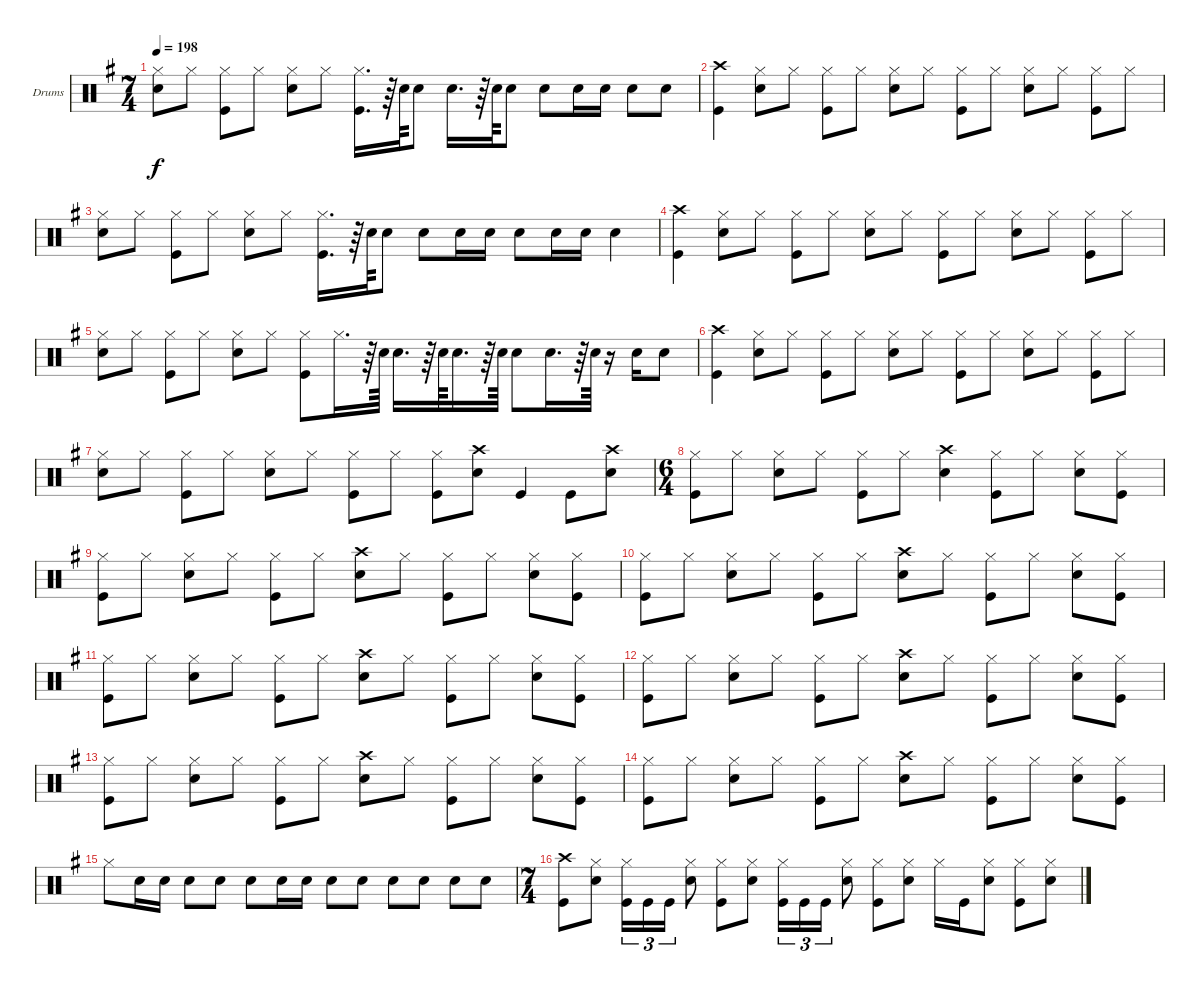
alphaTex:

\defaultSystemsLayout 4
\bracketExtendMode groupsimilarinstruments
\firstSystemTrackNameOrientation horizontal
\otherSystemsTrackNameOrientation horizontal
\track ("Drumkit" "Drums") {instrument percussion}
\staff {score}
\articulation defaults
\ts (7 4)
\tempo 198
\clef neutral
\ks g
("Hi-Hat (closed)" "Snare (hit) 2").8{dy f} "Hi-Hat (closed)".8 ("Hi-Hat (closed)" "Kick (hit)").8 "Hi-Hat (closed)".8 ("Hi-Hat (closed)" "Snare (hit) 2").8 "Hi-Hat (closed)".8 ("Hi-Hat (closed)" "Kick (hit)").16{d} r.64 "Snare (hit) 2".64 "Snare (hit) 2".8 "Snare (hit) 2".16{d} r.64 "Snare (hit) 2".64 "Snare (hit) 2".8 "Snare (hit) 2".8 "Snare (hit) 2".16 "Snare (hit) 2".16 "Snare (hit) 2".8 "Snare (hit) 2".8 |
("Kick (hit)" "Crash high (hit)").4 ("Hi-Hat (closed)" "Snare (hit) 2").8 "Hi-Hat (closed)".8 ("Hi-Hat (closed)" "Kick (hit)").8 "Hi-Hat (closed)".8 ("Snare (hit) 2" "Hi-Hat (closed)").8 "Hi-Hat (closed)".8 ("Hi-Hat (closed)" "Kick (hit)").8 "Hi-Hat (closed)".8 ("Snare (hit) 2" "Hi-Hat (closed)").8 "Hi-Hat (closed)".8 ("Hi-Hat (closed)" "Kick (hit)").8 "Hi-Hat (closed)".8 |
("Hi-Hat (closed)" "Snare (hit) 2").8 "Hi-Hat (closed)".8 ("Hi-Hat (closed)" "Kick (hit)").8 "Hi-Hat (closed)".8 ("Hi-Hat (closed)" "Snare (hit) 2").8 "Hi-Hat (closed)".8 ("Hi-Hat (closed)" "Kick (hit)").16{d} r.64 "Snare (hit) 2".64 "Snare (hit) 2".8 "Snare (hit) 2".8 "Snare (hit) 2".16 "Snare (hit) 2".16 "Snare (hit) 2".8 "Snare (hit) 2".16 "Snare (hit) 2".16 "Snare (hit) 2".4 |
("Kick (hit)" "Crash high (hit)").4 ("Hi-Hat (closed)" "Snare (hit) 2").8 "Hi-Hat (closed)".8 ("Hi-Hat (closed)" "Kick (hit)").8 "Hi-Hat (closed)".8 ("Snare (hit) 2" "Hi-Hat (closed)").8 "Hi-Hat (closed)".8 ("Hi-Hat (closed)" "Kick (hit)").8 "Hi-Hat (closed)".8 ("Snare (hit) 2" "Hi-Hat (closed)").8 "Hi-Hat (closed)".8 ("Hi-Hat (closed)" "Kick (hit)").8 "Hi-Hat (closed)".8 |
("Hi-Hat (closed)" "Snare (hit) 2").8 "Hi-Hat (closed)".8 ("Hi-Hat (closed)" "Kick (hit)").8 "Hi-Hat (closed)".8 ("Hi-Hat (closed)" "Snare (hit) 2").8 "Hi-Hat (closed)".8 ("Hi-Hat (closed)" "Kick (hit)").8 "Hi-Hat (closed)".16{d} r.64 "Snare (hit) 2".64 "Snare (hit) 2".16{d} r.64 "Snare (hit) 2".64 "Snare (hit) 2".16{d} r.64 "Snare (hit) 2".64 "Snare (hit) 2".8 "Snare (hit) 2".16{d} r.64 "Snare (hit) 2".64 r.16 "Snare (hit) 2".16 "Snare (hit) 2".8 |
("Kick (hit)" "Crash high (hit)").4 ("Hi-Hat (closed)" "Snare (hit) 2").8 "Hi-Hat (closed)".8 ("Kick (hit)" "Hi-Hat (closed)").8 "Hi-Hat (closed)".8 ("Snare (hit) 2" "Hi-Hat (closed)").8 "Hi-Hat (closed)".8 ("Kick (hit)" "Hi-Hat (closed)").8 "Hi-Hat (closed)".8 ("Snare (hit) 2" "Hi-Hat (closed)").8 "Hi-Hat (closed)".8 ("Kick (hit)" "Hi-Hat (closed)").8 "Hi-Hat (closed)".8 |
("Hi-Hat (closed)" "Snare (hit) 2").8 "Hi-Hat (closed)".8 ("Hi-Hat (closed)" "Kick (hit)").8 "Hi-Hat (closed)".8 ("Snare (hit) 2" "Hi-Hat (closed)").8 "Hi-Hat (closed)".8 ("Hi-Hat (closed)" "Kick (hit)").8 "Hi-Hat (closed)".8 ("Hi-Hat (closed)" "Kick (hit)").8 ("Crash high (hit)" "Snare (hit) 2").8 "Kick (hit)".4 "Kick (hit)".8 ("Snare (hit) 2" "Crash high (hit)").8 |
\ts (6 4)
("Hi-Hat (closed)" "Kick (hit)").8 "Hi-Hat (closed)".8 ("Snare (hit) 2" "Hi-Hat (closed)").8 "Hi-Hat (closed)".8 ("Hi-Hat (closed)" "Kick (hit)").8 "Hi-Hat (closed)".8 ("Snare (hit) 2" "Crash high (hit)").4 ("Hi-Hat (closed)" "Kick (hit)").8 "Hi-Hat (closed)".8 ("Snare (hit) 2" "Hi-Hat (closed)").8 ("Kick (hit)" "Hi-Hat (closed)").8 |
("Hi-Hat (closed)" "Kick (hit)").8 "Hi-Hat (closed)".8 ("Snare (hit) 2" "Hi-Hat (closed)").8 "Hi-Hat (closed)".8 ("Hi-Hat (closed)" "Kick (hit)").8 "Hi-Hat (closed)".8 ("Crash high (hit)" "Snare (hit) 2").8 "Hi-Hat (closed)".8 ("Hi-Hat (closed)" "Kick (hit)").8 "Hi-Hat (closed)".8 ("Snare (hit) 2" "Hi-Hat (closed)").8 ("Kick (hit)" "Hi-Hat (closed)").8 |
("Hi-Hat (closed)" "Kick (hit)").8 "Hi-Hat (closed)".8 ("Snare (hit) 2" "Hi-Hat (closed)").8 "Hi-Hat (closed)".8 ("Hi-Hat (closed)" "Kick (hit)").8 "Hi-Hat (closed)".8 ("Crash high (hit)" "Snare (hit) 2").8 "Hi-Hat (closed)".8 ("Hi-Hat (closed)" "Kick (hit)").8 "Hi-Hat (closed)".8 ("Snare (hit) 2" "Hi-Hat (closed)").8 ("Kick (hit)" "Hi-Hat (closed)").8 |
("Hi-Hat (closed)" "Kick (hit)").8 "Hi-Hat (closed)".8 ("Snare (hit) 2" "Hi-Hat (closed)").8 "Hi-Hat (closed)".8 ("Hi-Hat (closed)" "Kick (hit)").8 "Hi-Hat (closed)".8 ("Crash high (hit)" "Snare (hit) 2").8 "Hi-Hat (closed)".8 ("Hi-Hat (closed)" "Kick (hit)").8 "Hi-Hat (closed)".8 ("Snare (hit) 2" "Hi-Hat (closed)").8 ("Kick (hit)" "Hi-Hat (closed)").8 |
("Hi-Hat (closed)" "Kick (hit)").8 "Hi-Hat (closed)".8 ("Snare (hit) 2" "Hi-Hat (closed)").8 "Hi-Hat (closed)".8 ("Hi-Hat (closed)" "Kick (hit)").8 "Hi-Hat (closed)".8 ("Crash high (hit)" "Snare (hit) 2").8 "Hi-Hat (closed)".8 ("Hi-Hat (closed)" "Kick (hit)").8 "Hi-Hat (closed)".8 ("Snare (hit) 2" "Hi-Hat (closed)").8 ("Kick (hit)" "Hi-Hat (closed)").8 |
("Hi-Hat (closed)" "Kick (hit)").8 "Hi-Hat (closed)".8 ("Snare (hit) 2" "Hi-Hat (closed)").8 "Hi-Hat (closed)".8 ("Hi-Hat (closed)" "Kick (hit)").8 "Hi-Hat (closed)".8 ("Crash high (hit)" "Snare (hit) 2").8 "Hi-Hat (closed)".8 ("Hi-Hat (closed)" "Kick (hit)").8 "Hi-Hat (closed)".8 ("Snare (hit) 2" "Hi-Hat (closed)").8 ("Kick (hit)" "Hi-Hat (closed)").8 |
("Hi-Hat (closed)" "Kick (hit)").8 "Hi-Hat (closed)".8 ("Snare (hit) 2" "Hi-Hat (closed)").8 "Hi-Hat (closed)".8 ("Hi-Hat (closed)" "Kick (hit)").8 "Hi-Hat (closed)".8 ("Crash high (hit)" "Snare (hit) 2").8 "Hi-Hat (closed)".8 ("Hi-Hat (closed)" "Kick (hit)").8 "Hi-Hat (closed)".8 ("Snare (hit) 2" "Hi-Hat (closed)").8 ("Kick (hit)" "Hi-Hat (closed)").8 |
"Hi-Hat (closed)".8 "Snare (hit) 2".16 "Snare (hit) 2".16 "Snare (hit) 2".8 "Snare (hit) 2".8 "Snare (hit) 2".8 "Snare (hit) 2".16 "Snare (hit) 2".16 "Snare (hit) 2".8 "Snare (hit) 2".8 "Snare (hit) 2".8 "Snare (hit) 2".8 "Snare (hit) 2".8 "Snare (hit) 2".8 |
\ts (7 4)
("Crash high (hit)" "Kick (hit)").8 ("Snare (hit) 2" "Hi-Hat (closed)").8 ("Hi-Hat (closed)" "Kick (hit)").16{tu (3 2)} "Kick (hit)".16{tu (3 2)} "Kick (hit)".16{tu (3 2)} ("Snare (hit) 2" "Hi-Hat (closed)").8 ("Hi-Hat (closed)" "Kick (hit)").8 ("Snare (hit) 2" "Hi-Hat (closed)").8 ("Hi-Hat (closed)" "Kick (hit)").16{tu (3 2)} "Kick (hit)".16{tu (3 2)} "Kick (hit)".16{tu (3 2)} ("Snare (hit) 2" "Hi-Hat (closed)").8 ("Hi-Hat (closed)" "Kick (hit)").8 ("Snare (hit) 2" "Hi-Hat (closed)").8 "Hi-Hat (closed)".16 "Kick (hit)".16 ("Snare (hit) 2" "Hi-Hat (closed)").8 ("Hi-Hat (closed)" "Kick (hit)").8 ("Snare (hit) 2" "Hi-Hat (closed)").8
